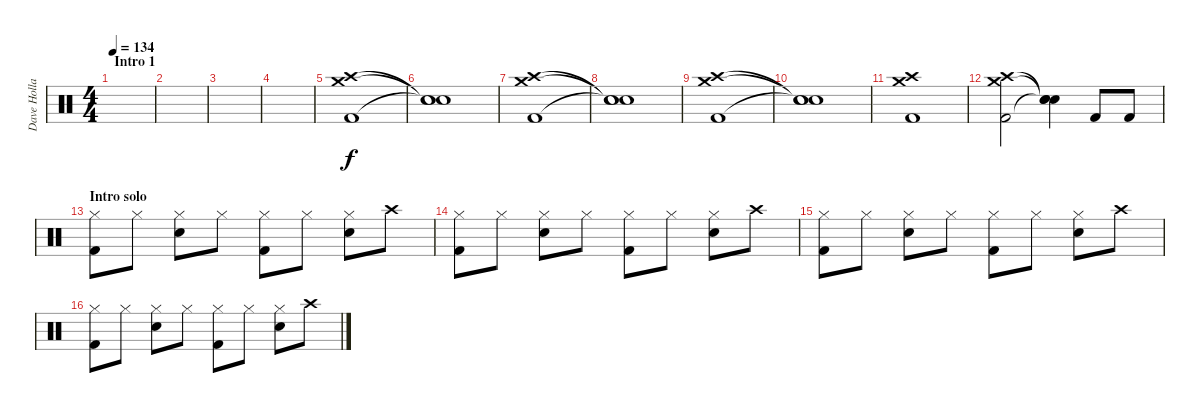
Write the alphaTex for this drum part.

\track ("Dave Holland" "Dave Holla") {instrument percussion}
\staff {score}
\articulation defaults
\ts (4 4)
\section ("" "Intro 1")
\tempo 134
\clef neutral
\ks c
|
|
|
|
("Crash high (hit)" "Crash medium (hit)" "Kick (hit) 2").1 |
("Snare (hit)"{t} "Snare (hit)"{t} "Snare (hit)"{t}).1 |
("Crash high (hit)" "Crash medium (hit)" "Kick (hit) 2").1 |
("Snare (hit)"{t} "Snare (hit)"{t} "Snare (hit)"{t}).1 |
("Crash high (hit)" "Crash medium (hit)" "Kick (hit) 2").1 |
("Snare (hit)"{t} "Snare (hit)"{t} "Snare (hit)"{t}).1 |
("Crash high (hit)" "Crash medium (hit)" "Kick (hit) 2").1 |
("Crash high (hit)" "Crash medium (hit)" "Kick (hit) 2").2 ("Snare (hit)"{t} "Snare (hit)"{t} "Snare (hit)"{t}).4 "Kick (hit) 2".8 "Kick (hit) 2".8 |
\section ("" "Intro solo")
("Hi-Hat (closed)" "Kick (hit) 2").8 "Hi-Hat (closed)".8 ("Hi-Hat (closed)" "Snare (hit) 2").8 "Hi-Hat (closed)".8 ("Hi-Hat (closed)" "Kick (hit) 2").8 "Hi-Hat (closed)".8 ("Hi-Hat (closed)" "Snare (hit) 2").8 "Crash high (hit)".8 |
("Hi-Hat (closed)" "Kick (hit) 2").8 "Hi-Hat (closed)".8 ("Hi-Hat (closed)" "Snare (hit) 2").8 "Hi-Hat (closed)".8 ("Hi-Hat (closed)" "Kick (hit) 2").8 "Hi-Hat (closed)".8 ("Hi-Hat (closed)" "Snare (hit) 2").8 "Crash high (hit)".8 |
("Hi-Hat (closed)" "Kick (hit) 2").8 "Hi-Hat (closed)".8 ("Hi-Hat (closed)" "Snare (hit) 2").8 "Hi-Hat (closed)".8 ("Hi-Hat (closed)" "Kick (hit) 2").8 "Hi-Hat (closed)".8 ("Hi-Hat (closed)" "Snare (hit) 2").8 "Crash high (hit)".8 |
("Hi-Hat (closed)" "Kick (hit) 2").8 "Hi-Hat (closed)".8 ("Hi-Hat (closed)" "Snare (hit) 2").8 "Hi-Hat (closed)".8 ("Hi-Hat (closed)" "Kick (hit) 2").8 "Hi-Hat (closed)".8 ("Hi-Hat (closed)" "Snare (hit) 2").8 "Crash high (hit)".8
